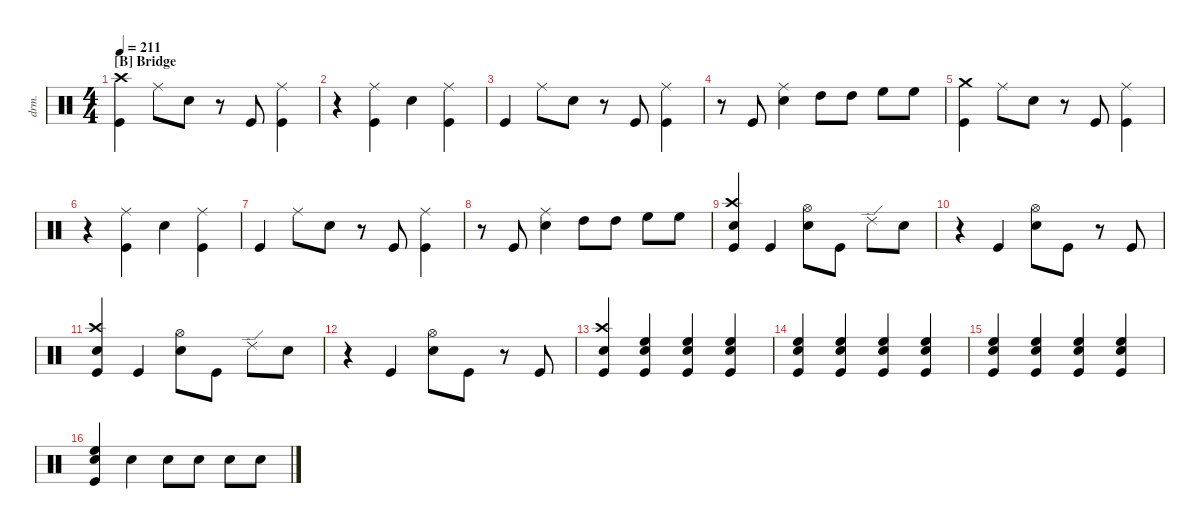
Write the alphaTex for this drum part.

\defaultSystemsLayout 4
\hideDynamics
\bracketExtendMode nobrackets
\track ("Drums" "drm.") {instrument percussion}
\staff {score}
\articulation defaults
\ts (4 4)
\section ("B" "Bridge")
\tempo 211
\clef neutral
\ks c
("Kick (hit)" "Crash high (hit)"{acc #}).4{dy fff} "Ride (middle)"{acc #}.8{dy ff} "Snare (hit) 2".8 r.8 "Kick (hit)".8{dy mf} ("Kick (hit)" "Ride (middle)"{acc #}).4{dy ff} |
r.4 ("Kick (hit)" "Ride (middle)"{acc #}).4 "Snare (hit) 2".4{dy fff} ("Kick (hit)" "Ride (middle)"{acc #}).4{dy f} |
"Kick (hit)".4{dy fff} "Ride (middle)"{acc #}.8{dy f} "Snare (hit) 2".8{dy ff} r.8 "Kick (hit)".8{dy mf} ("Kick (hit)" "Ride (middle)"{acc #}).4{dy ff} |
r.8 "Kick (hit)".8 ("Snare (hit) 2" "Ride (middle)"{acc #}).4 "High Tom (hit)".8 "High Tom (hit)".8{dy mf} "High Floor Tom (hit)".8{dy ff} "High Floor Tom (hit)".8{dy mf} |
("Kick (hit)" "Crash medium (hit)").4{dy fff} "Ride (middle)"{acc #}.8{dy ff} "Snare (hit) 2".8 r.8 "Kick (hit)".8{dy mf} ("Kick (hit)" "Ride (middle)"{acc #}).4{dy ff} |
r.4 ("Kick (hit)" "Ride (middle)"{acc #}).4 "Snare (hit) 2".4{dy fff} ("Kick (hit)" "Ride (middle)"{acc #}).4{dy f} |
"Kick (hit)".4{dy fff} "Ride (middle)"{acc #}.8{dy f} "Snare (hit) 2".8{dy ff} r.8 "Kick (hit)".8{dy mf} ("Kick (hit)" "Ride (middle)"{acc #}).4{dy ff} |
r.8 "Kick (hit)".8 ("Snare (hit) 2" "Ride (middle)"{acc #}).4{dy fff} "High Tom (hit)".8{dy ff} "High Tom (hit)".8{dy mf} "High Floor Tom (hit)".8{dy ff} "High Floor Tom (hit)".8{dy mf} |
("Kick (hit)" "Snare (hit) 2" "Crash high (hit)"{acc #}).4{dy ff} "Kick (hit)".4 ("Snare (hit) 2" "Hi-Hat (open)"{acc #}).8 "Kick (hit)".8 "Ride (edge) 2".8 "Snare (hit) 2".8 |
r.4 "Kick (hit)".4 ("Snare (hit) 2" "Hi-Hat (open)"{acc #}).8 "Kick (hit)".8 r.8 "Kick (hit)".8 |
("Snare (hit) 2" "Kick (hit)" "Crash high (hit)"{acc #}).4 "Kick (hit)".4 ("Snare (hit) 2" "Hi-Hat (open)"{acc #}).8 "Kick (hit)".8 "Ride (edge) 2".8 "Snare (hit) 2".8 |
r.4 "Kick (hit)".4 ("Snare (hit) 2" "Hi-Hat (open)"{acc #}).8 "Kick (hit)".8 r.8 "Kick (hit)".8 |
("Snare (hit) 2" "Kick (hit)" "Crash high (hit)"{acc #}).4 ("Kick (hit)" "Snare (hit) 2" "High Floor Tom (hit)").4 ("Snare (hit) 2" "Kick (hit)" "High Floor Tom (hit)").4 ("Snare (hit) 2" "Kick (hit)" "High Floor Tom (hit)").4 |
("Kick (hit)" "Snare (hit) 2" "High Floor Tom (hit)").4 ("Kick (hit)" "Snare (hit) 2" "High Floor Tom (hit)").4 ("Snare (hit) 2" "Kick (hit)" "High Floor Tom (hit)").4 ("Kick (hit)" "Snare (hit) 2" "High Floor Tom (hit)").4 |
("Kick (hit)" "Snare (hit) 2" "High Floor Tom (hit)").4 ("Snare (hit) 2" "Kick (hit)" "High Floor Tom (hit)").4 ("Kick (hit)" "Snare (hit) 2" "High Floor Tom (hit)").4 ("Kick (hit)" "Snare (hit) 2" "High Floor Tom (hit)").4 |
("Kick (hit)" "Snare (hit) 2" "High Floor Tom (hit)").4 "Snare (hit) 2".4 "Snare (hit) 2".8{dy f} "Snare (hit) 2".8{dy mf} "Snare (hit) 2".8{dy f} "Snare (hit) 2".8{dy mf}
